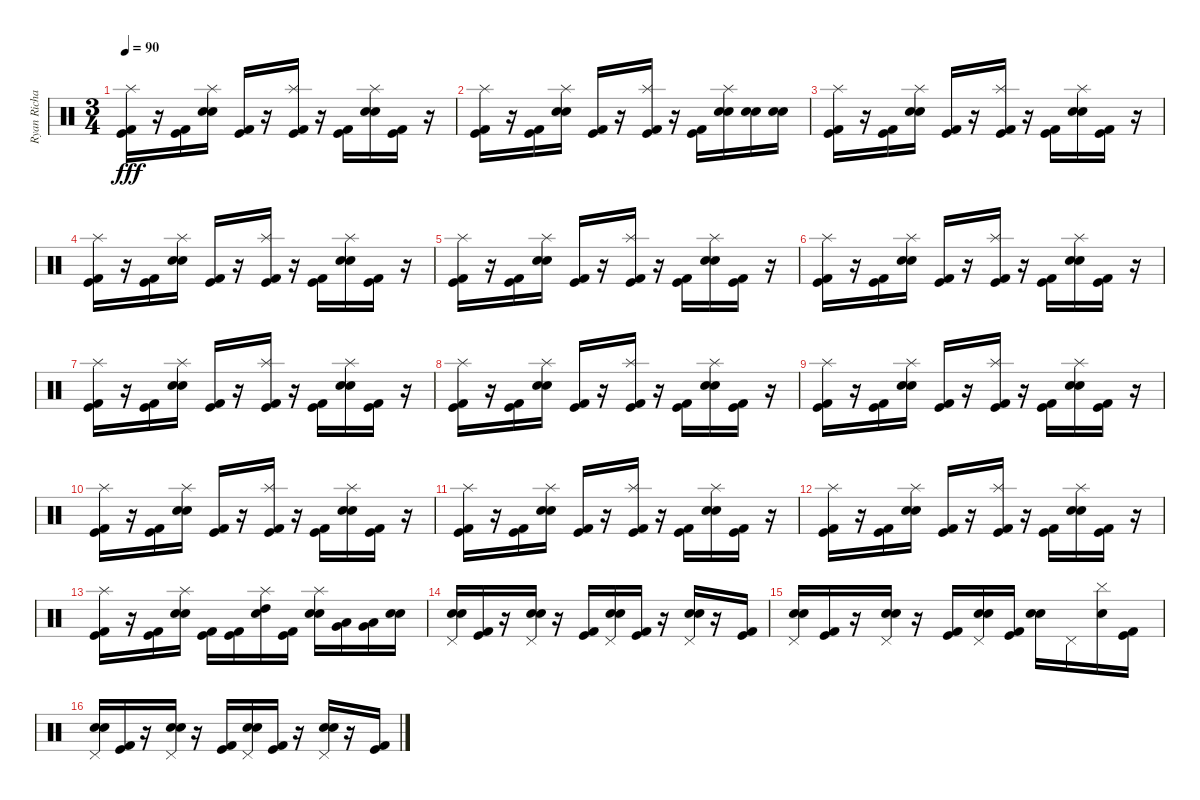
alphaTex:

\track ("Ryan Richards" "Ryan Richa") {instrument percussion}
\staff {score}
\articulation defaults
\ts (3 4)
\tempo 90
\clef neutral
\ks c
("Kick (hit)" "Splash (hit)" "Kick (hit) 2").16{dy fff} r.16 ("Kick (hit)" "Kick (hit) 2").16 ("Splash (hit)" "Snare (hit) 2" "Electric Snare (hit)").16 ("Kick (hit)" "Kick (hit) 2").16 r.16 ("Kick (hit)" "Splash (hit)" "Kick (hit) 2").16 r.16 ("Kick (hit)" "Kick (hit) 2").16 ("Splash (hit)" "Snare (hit) 2" "Electric Snare (hit)").16 ("Kick (hit)" "Kick (hit) 2").16 r.16 |
("Kick (hit)" "Splash (hit)" "Kick (hit) 2").16 r.16 ("Kick (hit)" "Kick (hit) 2").16 ("Splash (hit)" "Snare (hit) 2" "Electric Snare (hit)").16 ("Kick (hit)" "Kick (hit) 2").16 r.16 ("Kick (hit)" "Splash (hit)" "Kick (hit) 2").16 r.16 ("Kick (hit)" "Kick (hit) 2").16 ("Splash (hit)" "Snare (hit) 2" "Electric Snare (hit)").16 ("Snare (hit) 2" "Electric Snare (hit)").16 ("Snare (hit) 2" "Electric Snare (hit)").16 |
("Kick (hit)" "Splash (hit)" "Kick (hit) 2").16 r.16 ("Kick (hit)" "Kick (hit) 2").16 ("Splash (hit)" "Snare (hit) 2" "Electric Snare (hit)").16 ("Kick (hit)" "Kick (hit) 2").16 r.16 ("Kick (hit)" "Splash (hit)" "Kick (hit) 2").16 r.16 ("Kick (hit)" "Kick (hit) 2").16 ("Splash (hit)" "Snare (hit) 2" "Electric Snare (hit)").16 ("Kick (hit)" "Kick (hit) 2").16 r.16 |
("Kick (hit)" "Splash (hit)" "Kick (hit) 2").16 r.16 ("Kick (hit)" "Kick (hit) 2").16 ("Splash (hit)" "Snare (hit) 2" "Electric Snare (hit)").16 ("Kick (hit)" "Kick (hit) 2").16 r.16 ("Kick (hit)" "Splash (hit)" "Kick (hit) 2").16 r.16 ("Kick (hit)" "Kick (hit) 2").16 ("Splash (hit)" "Snare (hit) 2" "Electric Snare (hit)").16 ("Kick (hit)" "Kick (hit) 2").16 r.16 |
("Kick (hit)" "Splash (hit)" "Kick (hit) 2").16 r.16 ("Kick (hit)" "Kick (hit) 2").16 ("Splash (hit)" "Snare (hit) 2" "Electric Snare (hit)").16 ("Kick (hit)" "Kick (hit) 2").16 r.16 ("Kick (hit)" "Splash (hit)" "Kick (hit) 2").16 r.16 ("Kick (hit)" "Kick (hit) 2").16 ("Splash (hit)" "Snare (hit) 2" "Electric Snare (hit)").16 ("Kick (hit)" "Kick (hit) 2").16 r.16 |
("Kick (hit)" "Splash (hit)" "Kick (hit) 2").16 r.16 ("Kick (hit)" "Kick (hit) 2").16 ("Splash (hit)" "Snare (hit) 2" "Electric Snare (hit)").16 ("Kick (hit)" "Kick (hit) 2").16 r.16 ("Kick (hit)" "Splash (hit)" "Kick (hit) 2").16 r.16 ("Kick (hit)" "Kick (hit) 2").16 ("Splash (hit)" "Snare (hit) 2" "Electric Snare (hit)").16 ("Kick (hit)" "Kick (hit) 2").16 r.16 |
("Kick (hit)" "Splash (hit)" "Kick (hit) 2").16 r.16 ("Kick (hit)" "Kick (hit) 2").16 ("Splash (hit)" "Snare (hit) 2" "Electric Snare (hit)").16 ("Kick (hit)" "Kick (hit) 2").16 r.16 ("Kick (hit)" "Splash (hit)" "Kick (hit) 2").16 r.16 ("Kick (hit)" "Kick (hit) 2").16 ("Splash (hit)" "Snare (hit) 2" "Electric Snare (hit)").16 ("Kick (hit)" "Kick (hit) 2").16 r.16 |
("Kick (hit)" "Splash (hit)" "Kick (hit) 2").16 r.16 ("Kick (hit)" "Kick (hit) 2").16 ("Splash (hit)" "Snare (hit) 2" "Electric Snare (hit)").16 ("Kick (hit)" "Kick (hit) 2").16 r.16 ("Kick (hit)" "Splash (hit)" "Kick (hit) 2").16 r.16 ("Kick (hit)" "Kick (hit) 2").16 ("Splash (hit)" "Snare (hit) 2" "Electric Snare (hit)").16 ("Kick (hit)" "Kick (hit) 2").16 r.16 |
("Kick (hit)" "Splash (hit)" "Kick (hit) 2").16 r.16 ("Kick (hit)" "Kick (hit) 2").16 ("Splash (hit)" "Snare (hit) 2" "Electric Snare (hit)").16 ("Kick (hit)" "Kick (hit) 2").16 r.16 ("Kick (hit)" "Splash (hit)" "Kick (hit) 2").16 r.16 ("Kick (hit)" "Kick (hit) 2").16 ("Splash (hit)" "Snare (hit) 2" "Electric Snare (hit)").16 ("Kick (hit)" "Kick (hit) 2").16 r.16 |
("Kick (hit)" "Splash (hit)" "Kick (hit) 2").16 r.16 ("Kick (hit)" "Kick (hit) 2").16 ("Splash (hit)" "Snare (hit) 2" "Electric Snare (hit)").16 ("Kick (hit)" "Kick (hit) 2").16 r.16 ("Kick (hit)" "Splash (hit)" "Kick (hit) 2").16 r.16 ("Kick (hit)" "Kick (hit) 2").16 ("Splash (hit)" "Snare (hit) 2" "Electric Snare (hit)").16 ("Kick (hit)" "Kick (hit) 2").16 r.16 |
("Kick (hit)" "Splash (hit)" "Kick (hit) 2").16 r.16 ("Kick (hit)" "Kick (hit) 2").16 ("Splash (hit)" "Snare (hit) 2" "Electric Snare (hit)").16 ("Kick (hit)" "Kick (hit) 2").16 r.16 ("Kick (hit)" "Splash (hit)" "Kick (hit) 2").16 r.16 ("Kick (hit)" "Kick (hit) 2").16 ("Splash (hit)" "Snare (hit) 2" "Electric Snare (hit)").16 ("Kick (hit)" "Kick (hit) 2").16 r.16 |
("Kick (hit)" "Splash (hit)" "Kick (hit) 2").16 r.16 ("Kick (hit)" "Kick (hit) 2").16 ("Splash (hit)" "Snare (hit) 2" "Electric Snare (hit)").16 ("Kick (hit)" "Kick (hit) 2").16 r.16 ("Kick (hit)" "Splash (hit)" "Kick (hit) 2").16 r.16 ("Kick (hit)" "Kick (hit) 2").16 ("Splash (hit)" "Snare (hit) 2" "Electric Snare (hit)").16 ("Kick (hit)" "Kick (hit) 2").16 r.16 |
("Kick (hit)" "Splash (hit)" "Kick (hit) 2").16 r.16 ("Kick (hit)" "Kick (hit) 2").16 ("Splash (hit)" "Snare (hit) 2" "Electric Snare (hit)").16 ("Kick (hit)" "Kick (hit) 2").16 ("Kick (hit)" "Kick (hit) 2").16 ("Splash (hit)" "High Tom (hit)" "Electric Snare (hit)").16 ("Kick (hit)" "Kick (hit) 2").16 ("Splash (hit)" "Snare (hit) 2" "Electric Snare (hit)").16 ("Low Tom (hit)" "Very Low Tom (hit)").16 ("Very Low Tom (hit)" "Low Floor Tom (hit)").16 ("Snare (hit) 2" "Electric Snare (hit)").16 |
("Pedal Hi-Hat (hit)" "Snare (hit) 2" "Electric Snare (hit)").16 ("Kick (hit)" "Kick (hit) 2").16 r.16 ("Pedal Hi-Hat (hit)" "Snare (hit) 2" "Electric Snare (hit)").16 r.16 ("Kick (hit)" "Kick (hit) 2").16 ("Pedal Hi-Hat (hit)" "Snare (hit) 2" "Electric Snare (hit)").16 ("Kick (hit)" "Kick (hit) 2").16 r.16 ("Pedal Hi-Hat (hit)" "Snare (hit) 2" "Electric Snare (hit)").16 r.16 ("Kick (hit)" "Kick (hit) 2").16 |
("Pedal Hi-Hat (hit)" "Snare (hit) 2" "Electric Snare (hit)").16 ("Kick (hit)" "Kick (hit) 2").16 r.16 ("Pedal Hi-Hat (hit)" "Snare (hit) 2" "Electric Snare (hit)").16 r.16 ("Kick (hit)" "Kick (hit) 2").16 ("Pedal Hi-Hat (hit)" "Snare (hit) 2" "Electric Snare (hit)").16 ("Kick (hit)" "Kick (hit) 2").16 ("Snare (hit) 2" "Electric Snare (hit)").16 "Pedal Hi-Hat (hit)".16 ("Snare (hit) 2" "Cymbal (hit)").16 ("Kick (hit)" "Kick (hit) 2").16 |
("Pedal Hi-Hat (hit)" "Snare (hit) 2" "Electric Snare (hit)").16 ("Kick (hit)" "Kick (hit) 2").16 r.16 ("Pedal Hi-Hat (hit)" "Snare (hit) 2" "Electric Snare (hit)").16 r.16 ("Kick (hit)" "Kick (hit) 2").16 ("Pedal Hi-Hat (hit)" "Snare (hit) 2" "Electric Snare (hit)").16 ("Kick (hit)" "Kick (hit) 2").16 r.16 ("Pedal Hi-Hat (hit)" "Snare (hit) 2" "Electric Snare (hit)").16 r.16 ("Kick (hit)" "Kick (hit) 2").16
